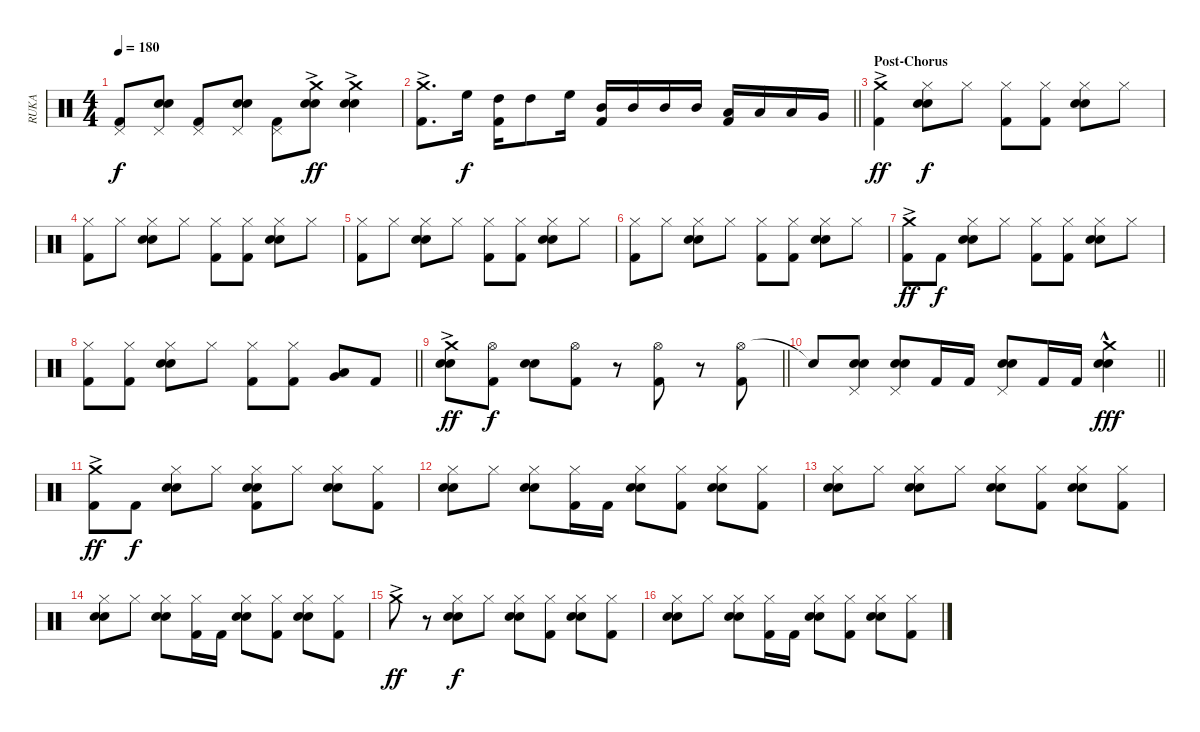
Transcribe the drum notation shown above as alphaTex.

\track ("RUKA" "RUKA") {instrument percussion}
\staff {score}
\articulation defaults
\ts (4 4)
\tempo 180
\clef neutral
\ks c
("Pedal Hi-Hat (hit)" "Kick (hit) 2").8{dy f} ("Pedal Hi-Hat (hit)" "Snare (hit) 2" "Electric Snare (hit)").8 ("Pedal Hi-Hat (hit)" "Kick (hit) 2").8 ("Pedal Hi-Hat (hit)" "Snare (hit) 2" "Electric Snare (hit)").8 ("Pedal Hi-Hat (hit)" "Kick (hit) 2").8 ("Crash medium (hit)"{ac} "Snare (hit) 2" "Electric Snare (hit)").8{dy ff} ("Crash medium (hit)"{ac} "Snare (hit) 2" "Electric Snare (hit)").4 |
\barLineRight lightlight
("Crash medium (hit)"{ac} "Kick (hit) 2").8{d} "High Floor Tom (hit)".16{dy f} ("High Tom (hit)" "Kick (hit) 2").16 "High Tom (hit)".8 "High Floor Tom (hit)".16 ("Mid Tom (hit)" "Kick (hit) 2").16 "Mid Tom (hit)".16 "Mid Tom (hit)".16 "Mid Tom (hit)".16 ("Low Tom (hit)" "Kick (hit) 2").16 "Low Tom (hit)".16 "Low Tom (hit)".16 "Very Low Tom (hit)".16 |
\section ("" "Post-Chorus")
("Crash medium (hit)"{ac} "Kick (hit) 2").4{dy ff} ("Hi-Hat (closed)" "Snare (hit) 2" "Electric Snare (hit)").8{dy f} "Hi-Hat (closed)".8 ("Hi-Hat (closed)" "Kick (hit) 2").8 ("Hi-Hat (closed)" "Kick (hit) 2").8 ("Hi-Hat (closed)" "Snare (hit) 2" "Electric Snare (hit)").8 "Hi-Hat (closed)".8 |
("Hi-Hat (closed)" "Kick (hit) 2").8 "Hi-Hat (closed)".8 ("Hi-Hat (closed)" "Snare (hit) 2" "Electric Snare (hit)").8 "Hi-Hat (closed)".8 ("Hi-Hat (closed)" "Kick (hit) 2").8 ("Hi-Hat (closed)" "Kick (hit) 2").8 ("Hi-Hat (closed)" "Snare (hit) 2" "Electric Snare (hit)").8 "Hi-Hat (closed)".8 |
("Hi-Hat (closed)" "Kick (hit) 2").8 "Hi-Hat (closed)".8 ("Hi-Hat (closed)" "Snare (hit) 2" "Electric Snare (hit)").8 "Hi-Hat (closed)".8 ("Hi-Hat (closed)" "Kick (hit) 2").8 ("Hi-Hat (closed)" "Kick (hit) 2").8 ("Hi-Hat (closed)" "Snare (hit) 2" "Electric Snare (hit)").8 "Hi-Hat (closed)".8 |
("Hi-Hat (closed)" "Kick (hit) 2").8 "Hi-Hat (closed)".8 ("Hi-Hat (closed)" "Snare (hit) 2" "Electric Snare (hit)").8 "Hi-Hat (closed)".8 ("Hi-Hat (closed)" "Kick (hit) 2").8 ("Hi-Hat (closed)" "Kick (hit) 2").8 ("Hi-Hat (closed)" "Snare (hit) 2" "Electric Snare (hit)").8 "Hi-Hat (closed)".8 |
("Crash medium (hit)"{ac} "Kick (hit) 2").8{dy ff} "Kick (hit) 2".8{dy f} ("Hi-Hat (closed)" "Snare (hit) 2" "Electric Snare (hit)").8 "Hi-Hat (closed)".8 ("Hi-Hat (closed)" "Kick (hit) 2").8 ("Hi-Hat (closed)" "Kick (hit) 2").8 ("Hi-Hat (closed)" "Snare (hit) 2" "Electric Snare (hit)").8 "Hi-Hat (closed)".8 |
\barLineRight lightlight
("Hi-Hat (closed)" "Kick (hit) 2").8 ("Hi-Hat (closed)" "Kick (hit) 2").8 ("Hi-Hat (closed)" "Snare (hit) 2" "Electric Snare (hit)").8 "Hi-Hat (closed)".8 ("Hi-Hat (closed)" "Kick (hit) 2").8 ("Hi-Hat (closed)" "Kick (hit) 2").8 ("Low Tom (hit)" "Very Low Tom (hit)").8 "Kick (hit) 2".8 |
\barLineRight lightlight
("Crash medium (hit)"{ac} "Snare (hit) 2" "Electric Snare (hit)").8{dy ff} ("Hi-Hat (open)" "Kick (hit) 2").8{dy f} ("Snare (hit) 2" "Electric Snare (hit)").8 ("Hi-Hat (open)" "Kick (hit) 2").8 r.8 ("Hi-Hat (open)" "Kick (hit) 2").8 r.8 ("Hi-Hat (open)" "Kick (hit) 2").8 |
\barLineRight lightlight "Snare (hit)"{t}.8
("Pedal Hi-Hat (hit)" "Snare (hit) 2" "Electric Snare (hit)").8 ("Pedal Hi-Hat (hit)" "Snare (hit) 2" "Electric Snare (hit)").8 "Kick (hit) 2".16 "Kick (hit) 2".16 ("Pedal Hi-Hat (hit)" "Snare (hit) 2" "Electric Snare (hit)").8 "Kick (hit) 2".16 "Kick (hit) 2".16 ("Crash medium (hit)"{hac} "Snare (hit) 2" "Electric Snare (hit)").4{dy fff} |
("Crash medium (hit)"{ac} "Kick (hit) 2").8{dy ff} "Kick (hit) 2".8{dy f} ("Hi-Hat (closed)" "Snare (hit) 2" "Electric Snare (hit)").8 "Hi-Hat (closed)".8 ("Hi-Hat (closed)" "Snare (hit) 2" "Electric Snare (hit)" "Kick (hit) 2").8 "Hi-Hat (closed)".8 ("Hi-Hat (closed)" "Snare (hit) 2" "Electric Snare (hit)").8 ("Hi-Hat (closed)" "Kick (hit) 2").8 |
("Hi-Hat (closed)" "Snare (hit) 2" "Electric Snare (hit)").8 "Hi-Hat (closed)".8 ("Hi-Hat (closed)" "Snare (hit) 2" "Electric Snare (hit)").8 ("Hi-Hat (closed)" "Kick (hit) 2").16 "Kick (hit) 2".16 ("Hi-Hat (closed)" "Snare (hit) 2" "Electric Snare (hit)").8 ("Hi-Hat (closed)" "Kick (hit) 2").8 ("Hi-Hat (closed)" "Snare (hit) 2" "Electric Snare (hit)").8 ("Hi-Hat (closed)" "Kick (hit) 2").8 |
("Hi-Hat (closed)" "Snare (hit) 2" "Electric Snare (hit)").8 "Hi-Hat (closed)".8 ("Hi-Hat (closed)" "Snare (hit) 2" "Electric Snare (hit)").8 "Hi-Hat (closed)".8 ("Hi-Hat (closed)" "Snare (hit) 2" "Electric Snare (hit)").8 ("Hi-Hat (closed)" "Kick (hit) 2").8 ("Hi-Hat (closed)" "Snare (hit) 2" "Electric Snare (hit)").8 ("Hi-Hat (closed)" "Kick (hit) 2").8 |
("Hi-Hat (closed)" "Snare (hit) 2" "Electric Snare (hit)").8 "Hi-Hat (closed)".8 ("Hi-Hat (closed)" "Snare (hit) 2" "Electric Snare (hit)").8 ("Hi-Hat (closed)" "Kick (hit) 2").16 "Kick (hit) 2".16 ("Hi-Hat (closed)" "Snare (hit) 2" "Electric Snare (hit)").8 ("Hi-Hat (closed)" "Kick (hit) 2").8 ("Hi-Hat (closed)" "Snare (hit) 2" "Electric Snare (hit)").8 ("Hi-Hat (closed)" "Kick (hit) 2").8 |
"Crash medium (hit)"{ac}.8{dy ff} r.8 ("Hi-Hat (closed)" "Snare (hit) 2" "Electric Snare (hit)").8{dy f} "Hi-Hat (closed)".8 ("Hi-Hat (closed)" "Snare (hit) 2" "Electric Snare (hit)").8 ("Hi-Hat (closed)" "Kick (hit) 2").8 ("Hi-Hat (closed)" "Snare (hit) 2" "Electric Snare (hit)").8 ("Hi-Hat (closed)" "Kick (hit) 2").8 |
("Hi-Hat (closed)" "Snare (hit) 2" "Electric Snare (hit)").8 "Hi-Hat (closed)".8 ("Hi-Hat (closed)" "Snare (hit) 2" "Electric Snare (hit)").8 ("Hi-Hat (closed)" "Kick (hit) 2").16 "Kick (hit) 2".16 ("Hi-Hat (closed)" "Snare (hit) 2" "Electric Snare (hit)").8 ("Hi-Hat (closed)" "Kick (hit) 2").8 ("Hi-Hat (closed)" "Snare (hit) 2" "Electric Snare (hit)").8 ("Hi-Hat (closed)" "Kick (hit) 2").8
